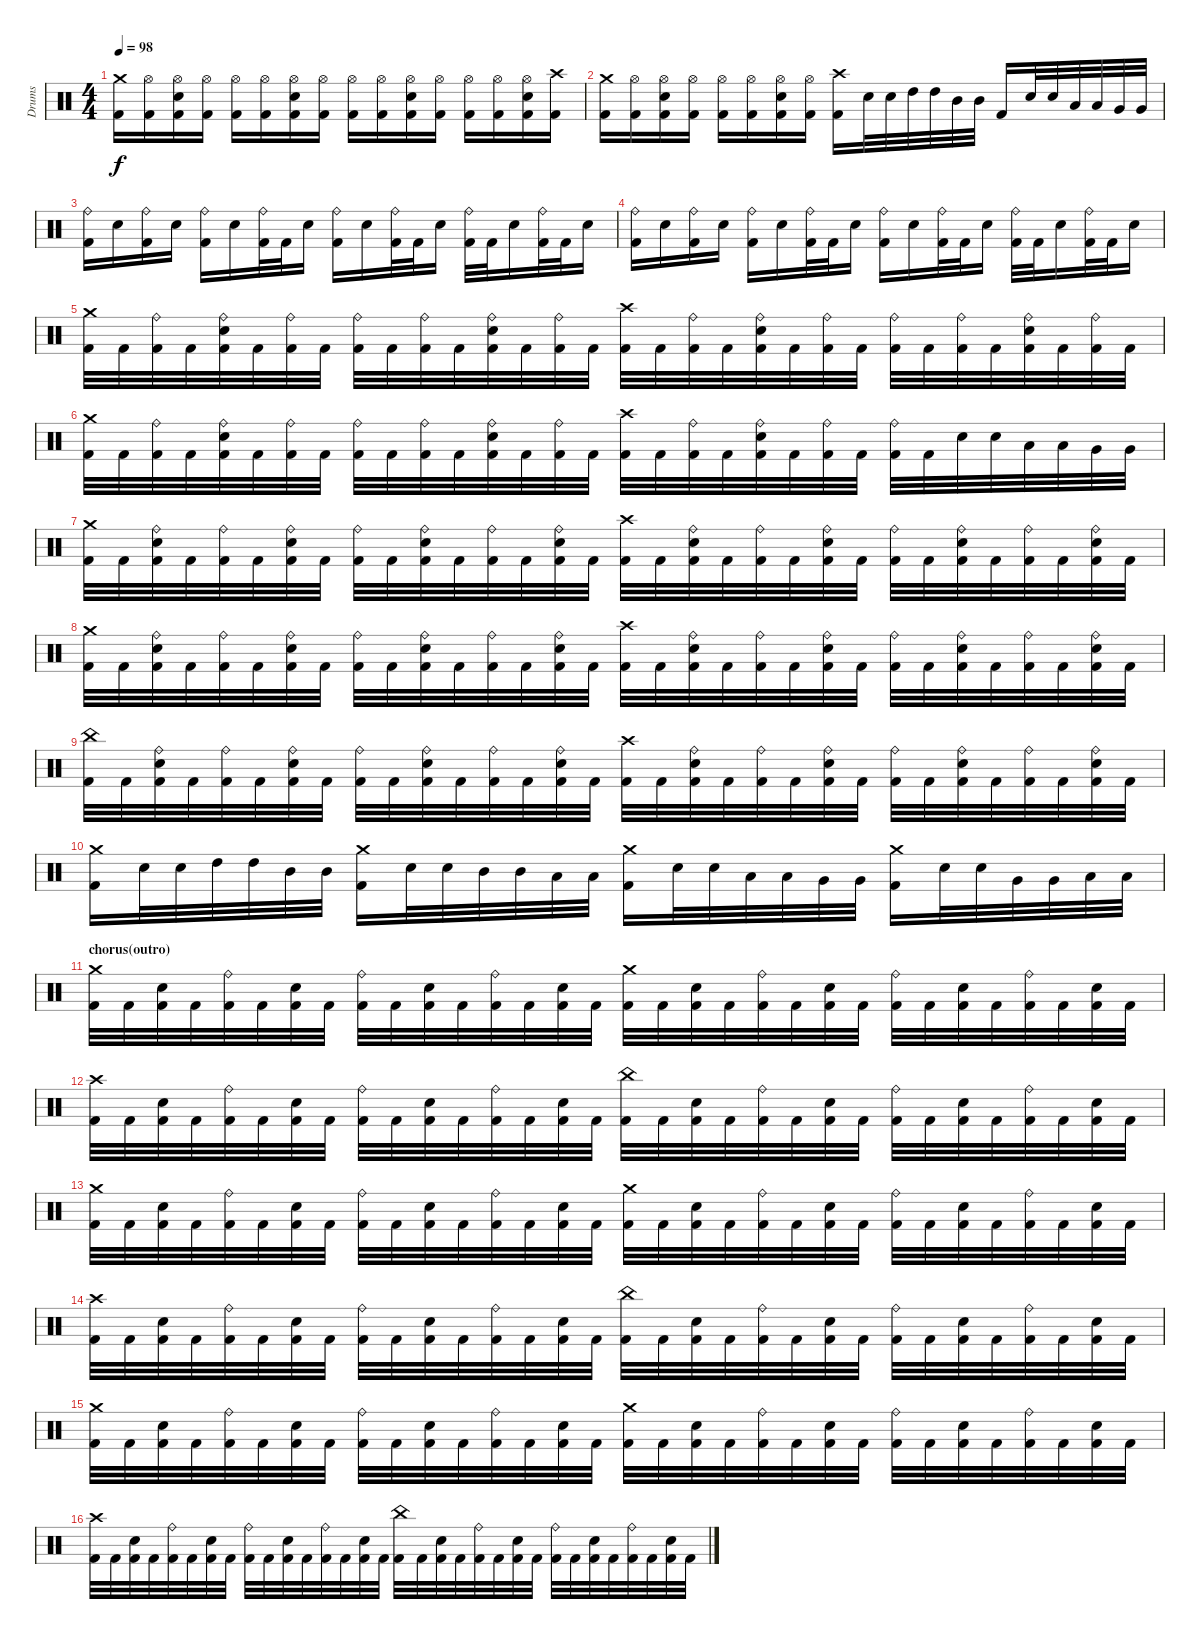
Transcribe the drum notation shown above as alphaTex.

\track ("Drums" "Drums") {instrument percussion}
\staff {score}
\articulation defaults
\ts (4 4)
\tempo 98
\clef neutral
\ks c
("Crash medium (hit)" "Kick (hit) 2").16{dy f} ("Hi-Hat (open)" "Kick (hit) 2").16 ("Hi-Hat (open)" "Electric Snare (hit)" "Kick (hit) 2").16 ("Hi-Hat (open)" "Kick (hit) 2").16 ("Hi-Hat (open)" "Kick (hit) 2").16 ("Hi-Hat (open)" "Kick (hit) 2").16 ("Hi-Hat (open)" "Electric Snare (hit)" "Kick (hit) 2").16 ("Hi-Hat (open)" "Kick (hit) 2").16 ("Hi-Hat (open)" "Kick (hit) 2").16 ("Hi-Hat (open)" "Kick (hit) 2").16 ("Hi-Hat (open)" "Electric Snare (hit)" "Kick (hit) 2").16 ("Hi-Hat (open)" "Kick (hit) 2").16 ("Hi-Hat (open)" "Kick (hit) 2").16 ("Hi-Hat (open)" "Kick (hit) 2").16 ("Hi-Hat (open)" "Electric Snare (hit)" "Kick (hit) 2").16 ("Crash high (hit)" "Kick (hit) 2").16 |
("Crash medium (hit)" "Kick (hit) 2").16 ("Hi-Hat (open)" "Kick (hit) 2").16 ("Hi-Hat (open)" "Electric Snare (hit)" "Kick (hit) 2").16 ("Hi-Hat (open)" "Kick (hit) 2").16 ("Hi-Hat (open)" "Kick (hit) 2").16 ("Hi-Hat (open)" "Kick (hit) 2").16 ("Hi-Hat (open)" "Electric Snare (hit)" "Kick (hit) 2").16 ("Hi-Hat (open)" "Kick (hit) 2").16 ("Crash high (hit)" "Kick (hit) 2").16 "Electric Snare (hit)".32 "Electric Snare (hit)".32 "High Tom (hit)".32 "High Tom (hit)".32 "Mid Tom (hit)".32 "Mid Tom (hit)".32 "Kick (hit) 2".16 "Electric Snare (hit)".32 "Electric Snare (hit)".32 "Low Tom (hit)".32 "Low Tom (hit)".32 "Very Low Tom (hit)".32 "Very Low Tom (hit)".32 |
("Ride (bell)" "Kick (hit) 2").16 "Electric Snare (hit)".16 ("Ride (bell)" "Kick (hit) 2").16 "Electric Snare (hit)".16 ("Ride (bell)" "Kick (hit) 2").16 "Electric Snare (hit)".16 ("Ride (bell)" "Kick (hit) 2").32 "Kick (hit) 2".32 "Electric Snare (hit)".16 ("Ride (bell)" "Kick (hit) 2").16 "Electric Snare (hit)".16 ("Ride (bell)" "Kick (hit) 2").32 "Kick (hit) 2".32 "Electric Snare (hit)".16 ("Ride (bell)" "Kick (hit) 2").32 "Kick (hit) 2".32 "Electric Snare (hit)".16 ("Ride (bell)" "Kick (hit) 2").32 "Kick (hit) 2".32 "Electric Snare (hit)".16 |
("Ride (bell)" "Kick (hit) 2").16 "Electric Snare (hit)".16 ("Ride (bell)" "Kick (hit) 2").16 "Electric Snare (hit)".16 ("Ride (bell)" "Kick (hit) 2").16 "Electric Snare (hit)".16 ("Ride (bell)" "Kick (hit) 2").32 "Kick (hit) 2".32 "Electric Snare (hit)".16 ("Ride (bell)" "Kick (hit) 2").16 "Electric Snare (hit)".16 ("Ride (bell)" "Kick (hit) 2").32 "Kick (hit) 2".32 "Electric Snare (hit)".16 ("Ride (bell)" "Kick (hit) 2").32 "Kick (hit) 2".32 "Electric Snare (hit)".16 ("Ride (bell)" "Kick (hit) 2").32 "Kick (hit) 2".32 "Electric Snare (hit)".16 |
("Crash medium (hit)" "Kick (hit) 2").32 "Kick (hit) 2".32 ("Ride (bell)" "Kick (hit) 2").32 "Kick (hit) 2".32 ("Ride (bell)" "Electric Snare (hit)" "Kick (hit) 2").32 "Kick (hit) 2".32 ("Ride (bell)" "Kick (hit) 2").32 "Kick (hit) 2".32 ("Ride (bell)" "Kick (hit) 2").32 "Kick (hit) 2".32 ("Ride (bell)" "Kick (hit) 2").32 "Kick (hit) 2".32 ("Ride (bell)" "Electric Snare (hit)" "Kick (hit) 2").32 "Kick (hit) 2".32 ("Ride (bell)" "Kick (hit) 2").32 "Kick (hit) 2".32 ("Crash high (hit)" "Kick (hit) 2").32 "Kick (hit) 2".32 ("Ride (bell)" "Kick (hit) 2").32 "Kick (hit) 2".32 ("Ride (bell)" "Electric Snare (hit)" "Kick (hit) 2").32 "Kick (hit) 2".32 ("Ride (bell)" "Kick (hit) 2").32 "Kick (hit) 2".32 ("Ride (bell)" "Kick (hit) 2").32 "Kick (hit) 2".32 ("Ride (bell)" "Kick (hit) 2").32 "Kick (hit) 2".32 ("Ride (bell)" "Electric Snare (hit)" "Kick (hit) 2").32 "Kick (hit) 2".32 ("Ride (bell)" "Kick (hit) 2").32 "Kick (hit) 2".32 |
("Crash medium (hit)" "Kick (hit) 2").32 "Kick (hit) 2".32 ("Ride (bell)" "Kick (hit) 2").32 "Kick (hit) 2".32 ("Ride (bell)" "Electric Snare (hit)" "Kick (hit) 2").32 "Kick (hit) 2".32 ("Ride (bell)" "Kick (hit) 2").32 "Kick (hit) 2".32 ("Ride (bell)" "Kick (hit) 2").32 "Kick (hit) 2".32 ("Ride (bell)" "Kick (hit) 2").32 "Kick (hit) 2".32 ("Ride (bell)" "Electric Snare (hit)" "Kick (hit) 2").32 "Kick (hit) 2".32 ("Ride (bell)" "Kick (hit) 2").32 "Kick (hit) 2".32 ("Crash high (hit)" "Kick (hit) 2").32 "Kick (hit) 2".32 ("Ride (bell)" "Kick (hit) 2").32 "Kick (hit) 2".32 ("Ride (bell)" "Electric Snare (hit)" "Kick (hit) 2").32 "Kick (hit) 2".32 ("Ride (bell)" "Kick (hit) 2").32 "Kick (hit) 2".32 ("Ride (bell)" "Kick (hit) 2").32 "Kick (hit) 2".32 "Electric Snare (hit)".32 "Electric Snare (hit)".32 "Low Tom (hit)".32 "Low Tom (hit)".32 "Very Low Tom (hit)".32 "Very Low Tom (hit)".32 |
("Crash medium (hit)" "Kick (hit) 2").32 "Kick (hit) 2".32 ("Ride (bell)" "Electric Snare (hit)" "Kick (hit) 2").32 "Kick (hit) 2".32 ("Ride (bell)" "Kick (hit) 2").32 "Kick (hit) 2".32 ("Ride (bell)" "Electric Snare (hit)" "Kick (hit) 2").32 "Kick (hit) 2".32 ("Ride (bell)" "Kick (hit) 2").32 "Kick (hit) 2".32 ("Ride (bell)" "Electric Snare (hit)" "Kick (hit) 2").32 "Kick (hit) 2".32 ("Ride (bell)" "Kick (hit) 2").32 "Kick (hit) 2".32 ("Ride (bell)" "Electric Snare (hit)" "Kick (hit) 2").32 "Kick (hit) 2".32 ("Crash high (hit)" "Kick (hit) 2").32 "Kick (hit) 2".32 ("Ride (bell)" "Electric Snare (hit)" "Kick (hit) 2").32 "Kick (hit) 2".32 ("Ride (bell)" "Kick (hit) 2").32 "Kick (hit) 2".32 ("Ride (bell)" "Electric Snare (hit)" "Kick (hit) 2").32 "Kick (hit) 2".32 ("Ride (bell)" "Kick (hit) 2").32 "Kick (hit) 2".32 ("Ride (bell)" "Electric Snare (hit)" "Kick (hit) 2").32 "Kick (hit) 2".32 ("Ride (bell)" "Kick (hit) 2").32 "Kick (hit) 2".32 ("Ride (bell)" "Electric Snare (hit)" "Kick (hit) 2").32 "Kick (hit) 2".32 |
("Crash medium (hit)" "Kick (hit) 2").32 "Kick (hit) 2".32 ("Ride (bell)" "Electric Snare (hit)" "Kick (hit) 2").32 "Kick (hit) 2".32 ("Ride (bell)" "Kick (hit) 2").32 "Kick (hit) 2".32 ("Ride (bell)" "Electric Snare (hit)" "Kick (hit) 2").32 "Kick (hit) 2".32 ("Ride (bell)" "Kick (hit) 2").32 "Kick (hit) 2".32 ("Ride (bell)" "Electric Snare (hit)" "Kick (hit) 2").32 "Kick (hit) 2".32 ("Ride (bell)" "Kick (hit) 2").32 "Kick (hit) 2".32 ("Ride (bell)" "Electric Snare (hit)" "Kick (hit) 2").32 "Kick (hit) 2".32 ("Crash high (hit)" "Kick (hit) 2").32 "Kick (hit) 2".32 ("Ride (bell)" "Electric Snare (hit)" "Kick (hit) 2").32 "Kick (hit) 2".32 ("Ride (bell)" "Kick (hit) 2").32 "Kick (hit) 2".32 ("Ride (bell)" "Electric Snare (hit)" "Kick (hit) 2").32 "Kick (hit) 2".32 ("Ride (bell)" "Kick (hit) 2").32 "Kick (hit) 2".32 ("Ride (bell)" "Electric Snare (hit)" "Kick (hit) 2").32 "Kick (hit) 2".32 ("Ride (bell)" "Kick (hit) 2").32 "Kick (hit) 2".32 ("Ride (bell)" "Electric Snare (hit)" "Kick (hit) 2").32 "Kick (hit) 2".32 |
("China (hit)" "Kick (hit) 2").32 "Kick (hit) 2".32 ("Ride (bell)" "Electric Snare (hit)" "Kick (hit) 2").32 "Kick (hit) 2".32 ("Ride (bell)" "Kick (hit) 2").32 "Kick (hit) 2".32 ("Ride (bell)" "Electric Snare (hit)" "Kick (hit) 2").32 "Kick (hit) 2".32 ("Ride (bell)" "Kick (hit) 2").32 "Kick (hit) 2".32 ("Ride (bell)" "Electric Snare (hit)" "Kick (hit) 2").32 "Kick (hit) 2".32 ("Ride (bell)" "Kick (hit) 2").32 "Kick (hit) 2".32 ("Ride (bell)" "Electric Snare (hit)" "Kick (hit) 2").32 "Kick (hit) 2".32 ("Crash high (hit)" "Kick (hit) 2").32 "Kick (hit) 2".32 ("Ride (bell)" "Electric Snare (hit)" "Kick (hit) 2").32 "Kick (hit) 2".32 ("Ride (bell)" "Kick (hit) 2").32 "Kick (hit) 2".32 ("Ride (bell)" "Electric Snare (hit)" "Kick (hit) 2").32 "Kick (hit) 2".32 ("Ride (bell)" "Kick (hit) 2").32 "Kick (hit) 2".32 ("Ride (bell)" "Electric Snare (hit)" "Kick (hit) 2").32 "Kick (hit) 2".32 ("Ride (bell)" "Kick (hit) 2").32 "Kick (hit) 2".32 ("Ride (bell)" "Electric Snare (hit)" "Kick (hit) 2").32 "Kick (hit) 2".32 |
("Crash medium (hit)" "Kick (hit) 2").16 "Electric Snare (hit)".32 "Electric Snare (hit)".32 "High Tom (hit)".32 "High Tom (hit)".32 "Mid Tom (hit)".32 "Mid Tom (hit)".32 ("Crash medium (hit)" "Kick (hit) 2").16 "Electric Snare (hit)".32 "Electric Snare (hit)".32 "Mid Tom (hit)".32 "Mid Tom (hit)".32 "Low Tom (hit)".32 "Low Tom (hit)".32 ("Crash medium (hit)" "Kick (hit) 2").16 "Electric Snare (hit)".32 "Electric Snare (hit)".32 "Low Tom (hit)".32 "Low Tom (hit)".32 "Very Low Tom (hit)".32 "Very Low Tom (hit)".32 ("Crash medium (hit)" "Kick (hit) 2").16 "Electric Snare (hit)".32 "Electric Snare (hit)".32 "Very Low Tom (hit)".32 "Very Low Tom (hit)".32 "Low Floor Tom (hit)".32 "Low Floor Tom (hit)".32 |
\section ("" "chorus(outro)")
("Crash medium (hit)" "Kick (hit) 2").32 "Kick (hit) 2".32 ("Electric Snare (hit)" "Kick (hit) 2").32 "Kick (hit) 2".32 ("Ride (bell)" "Kick (hit) 2").32 "Kick (hit) 2".32 ("Electric Snare (hit)" "Kick (hit) 2").32 "Kick (hit) 2".32 ("Ride (bell)" "Kick (hit) 2").32 "Kick (hit) 2".32 ("Electric Snare (hit)" "Kick (hit) 2").32 "Kick (hit) 2".32 ("Ride (bell)" "Kick (hit) 2").32 "Kick (hit) 2".32 ("Electric Snare (hit)" "Kick (hit) 2").32 "Kick (hit) 2".32 ("Crash medium (hit)" "Kick (hit) 2").32 "Kick (hit) 2".32 ("Electric Snare (hit)" "Kick (hit) 2").32 "Kick (hit) 2".32 ("Ride (bell)" "Kick (hit) 2").32 "Kick (hit) 2".32 ("Electric Snare (hit)" "Kick (hit) 2").32 "Kick (hit) 2".32 ("Ride (bell)" "Kick (hit) 2").32 "Kick (hit) 2".32 ("Electric Snare (hit)" "Kick (hit) 2").32 "Kick (hit) 2".32 ("Ride (bell)" "Kick (hit) 2").32 "Kick (hit) 2".32 ("Electric Snare (hit)" "Kick (hit) 2").32 "Kick (hit) 2".32 |
("Crash high (hit)" "Kick (hit) 2").32 "Kick (hit) 2".32 ("Electric Snare (hit)" "Kick (hit) 2").32 "Kick (hit) 2".32 ("Ride (bell)" "Kick (hit) 2").32 "Kick (hit) 2".32 ("Electric Snare (hit)" "Kick (hit) 2").32 "Kick (hit) 2".32 ("Ride (bell)" "Kick (hit) 2").32 "Kick (hit) 2".32 ("Electric Snare (hit)" "Kick (hit) 2").32 "Kick (hit) 2".32 ("Ride (bell)" "Kick (hit) 2").32 "Kick (hit) 2".32 ("Electric Snare (hit)" "Kick (hit) 2").32 "Kick (hit) 2".32 ("China (hit)" "Kick (hit) 2").32 "Kick (hit) 2".32 ("Electric Snare (hit)" "Kick (hit) 2").32 "Kick (hit) 2".32 ("Ride (bell)" "Kick (hit) 2").32 "Kick (hit) 2".32 ("Electric Snare (hit)" "Kick (hit) 2").32 "Kick (hit) 2".32 ("Ride (bell)" "Kick (hit) 2").32 "Kick (hit) 2".32 ("Electric Snare (hit)" "Kick (hit) 2").32 "Kick (hit) 2".32 ("Ride (bell)" "Kick (hit) 2").32 "Kick (hit) 2".32 ("Electric Snare (hit)" "Kick (hit) 2").32 "Kick (hit) 2".32 |
("Crash medium (hit)" "Kick (hit) 2").32 "Kick (hit) 2".32 ("Electric Snare (hit)" "Kick (hit) 2").32 "Kick (hit) 2".32 ("Ride (bell)" "Kick (hit) 2").32 "Kick (hit) 2".32 ("Electric Snare (hit)" "Kick (hit) 2").32 "Kick (hit) 2".32 ("Ride (bell)" "Kick (hit) 2").32 "Kick (hit) 2".32 ("Electric Snare (hit)" "Kick (hit) 2").32 "Kick (hit) 2".32 ("Ride (bell)" "Kick (hit) 2").32 "Kick (hit) 2".32 ("Electric Snare (hit)" "Kick (hit) 2").32 "Kick (hit) 2".32 ("Crash medium (hit)" "Kick (hit) 2").32 "Kick (hit) 2".32 ("Electric Snare (hit)" "Kick (hit) 2").32 "Kick (hit) 2".32 ("Ride (bell)" "Kick (hit) 2").32 "Kick (hit) 2".32 ("Electric Snare (hit)" "Kick (hit) 2").32 "Kick (hit) 2".32 ("Ride (bell)" "Kick (hit) 2").32 "Kick (hit) 2".32 ("Electric Snare (hit)" "Kick (hit) 2").32 "Kick (hit) 2".32 ("Ride (bell)" "Kick (hit) 2").32 "Kick (hit) 2".32 ("Electric Snare (hit)" "Kick (hit) 2").32 "Kick (hit) 2".32 |
("Crash high (hit)" "Kick (hit) 2").32 "Kick (hit) 2".32 ("Electric Snare (hit)" "Kick (hit) 2").32 "Kick (hit) 2".32 ("Ride (bell)" "Kick (hit) 2").32 "Kick (hit) 2".32 ("Electric Snare (hit)" "Kick (hit) 2").32 "Kick (hit) 2".32 ("Ride (bell)" "Kick (hit) 2").32 "Kick (hit) 2".32 ("Electric Snare (hit)" "Kick (hit) 2").32 "Kick (hit) 2".32 ("Ride (bell)" "Kick (hit) 2").32 "Kick (hit) 2".32 ("Electric Snare (hit)" "Kick (hit) 2").32 "Kick (hit) 2".32 ("China (hit)" "Kick (hit) 2").32 "Kick (hit) 2".32 ("Electric Snare (hit)" "Kick (hit) 2").32 "Kick (hit) 2".32 ("Ride (bell)" "Kick (hit) 2").32 "Kick (hit) 2".32 ("Electric Snare (hit)" "Kick (hit) 2").32 "Kick (hit) 2".32 ("Ride (bell)" "Kick (hit) 2").32 "Kick (hit) 2".32 ("Electric Snare (hit)" "Kick (hit) 2").32 "Kick (hit) 2".32 ("Ride (bell)" "Kick (hit) 2").32 "Kick (hit) 2".32 ("Electric Snare (hit)" "Kick (hit) 2").32 "Kick (hit) 2".32 |
("Crash medium (hit)" "Kick (hit) 2").32 "Kick (hit) 2".32 ("Electric Snare (hit)" "Kick (hit) 2").32 "Kick (hit) 2".32 ("Ride (bell)" "Kick (hit) 2").32 "Kick (hit) 2".32 ("Electric Snare (hit)" "Kick (hit) 2").32 "Kick (hit) 2".32 ("Ride (bell)" "Kick (hit) 2").32 "Kick (hit) 2".32 ("Electric Snare (hit)" "Kick (hit) 2").32 "Kick (hit) 2".32 ("Ride (bell)" "Kick (hit) 2").32 "Kick (hit) 2".32 ("Electric Snare (hit)" "Kick (hit) 2").32 "Kick (hit) 2".32 ("Crash medium (hit)" "Kick (hit) 2").32 "Kick (hit) 2".32 ("Electric Snare (hit)" "Kick (hit) 2").32 "Kick (hit) 2".32 ("Ride (bell)" "Kick (hit) 2").32 "Kick (hit) 2".32 ("Electric Snare (hit)" "Kick (hit) 2").32 "Kick (hit) 2".32 ("Ride (bell)" "Kick (hit) 2").32 "Kick (hit) 2".32 ("Electric Snare (hit)" "Kick (hit) 2").32 "Kick (hit) 2".32 ("Ride (bell)" "Kick (hit) 2").32 "Kick (hit) 2".32 ("Electric Snare (hit)" "Kick (hit) 2").32 "Kick (hit) 2".32 |
("Crash high (hit)" "Kick (hit) 2").32 "Kick (hit) 2".32 ("Electric Snare (hit)" "Kick (hit) 2").32 "Kick (hit) 2".32 ("Ride (bell)" "Kick (hit) 2").32 "Kick (hit) 2".32 ("Electric Snare (hit)" "Kick (hit) 2").32 "Kick (hit) 2".32 ("Ride (bell)" "Kick (hit) 2").32 "Kick (hit) 2".32 ("Electric Snare (hit)" "Kick (hit) 2").32 "Kick (hit) 2".32 ("Ride (bell)" "Kick (hit) 2").32 "Kick (hit) 2".32 ("Electric Snare (hit)" "Kick (hit) 2").32 "Kick (hit) 2".32 ("China (hit)" "Kick (hit) 2").32 "Kick (hit) 2".32 ("Electric Snare (hit)" "Kick (hit) 2").32 "Kick (hit) 2".32 ("Ride (bell)" "Kick (hit) 2").32 "Kick (hit) 2".32 ("Electric Snare (hit)" "Kick (hit) 2").32 "Kick (hit) 2".32 ("Ride (bell)" "Kick (hit) 2").32 "Kick (hit) 2".32 ("Electric Snare (hit)" "Kick (hit) 2").32 "Kick (hit) 2".32 ("Ride (bell)" "Kick (hit) 2").32 "Kick (hit) 2".32 ("Electric Snare (hit)" "Kick (hit) 2").32 "Kick (hit) 2".32
